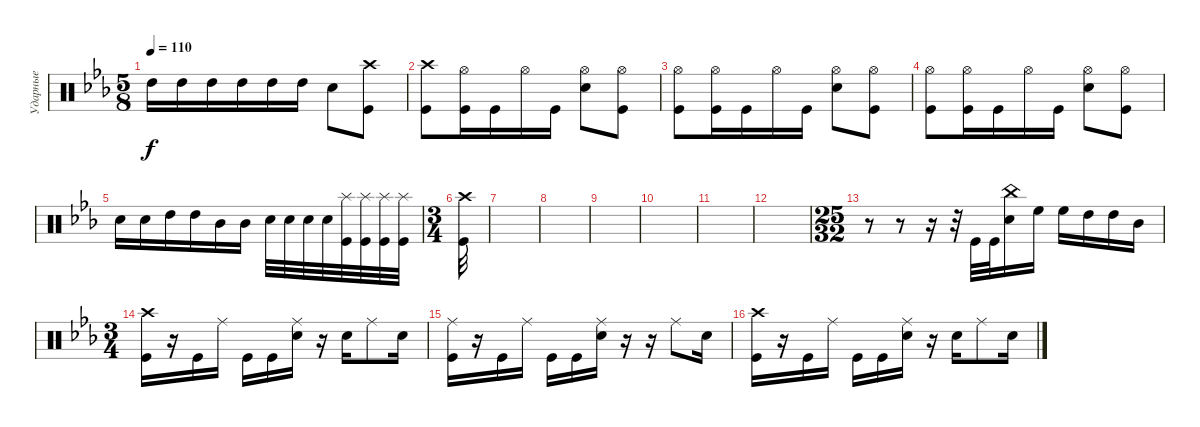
\track ("Ударные" "Ударные") {instrument percussion}
\staff {score}
\articulation defaults
\ts (5 8)
\tempo 110
\clef neutral
\ks cminor "High Tom (hit)".16{dy f} "High Tom (hit)".16 "High Tom (hit)".16 "High Tom (hit)".16 "High Tom (hit)".16 "High Tom (hit)".16 "Snare (hit) 2".8
("Kick (hit)" "Crash high (hit)").8 |
("Kick (hit)" "Crash high (hit)").8 ("Kick (hit)" "Hi-Hat (open)").16 "Kick (hit)".16 "Hi-Hat (open)".16 "Kick (hit)".16 ("Snare (hit) 2" "Hi-Hat (open)").8 ("Kick (hit)" "Hi-Hat (open)").8 |
("Kick (hit)" "Hi-Hat (open)").8 ("Kick (hit)" "Hi-Hat (open)").16 "Kick (hit)".16 "Hi-Hat (open)".16 "Kick (hit)".16 ("Snare (hit) 2" "Hi-Hat (open)").8 ("Kick (hit)" "Hi-Hat (open)").8 |
("Kick (hit)" "Hi-Hat (open)").8 ("Kick (hit)" "Hi-Hat (open)").16 "Kick (hit)".16 "Hi-Hat (open)".16 "Kick (hit)".16 ("Snare (hit) 2" "Hi-Hat (open)").8 ("Kick (hit)" "Hi-Hat (open)").8 |
"Snare (hit) 2".16 "Snare (hit) 2".16 "High Tom (hit)".16 "High Tom (hit)".16 "Mid Tom (hit)".16 "Mid Tom (hit)".16 "Snare (hit) 2".32 "Snare (hit) 2".32 "Snare (hit) 2".32 "Snare (hit) 2".32 ("Kick (hit)" "Splash (hit)").32 ("Kick (hit)" "Splash (hit)").32 ("Kick (hit)" "Splash (hit)").32 ("Kick (hit)" "Splash (hit)").32 |
\ts (3 4)
("Kick (hit)" "Crash high (hit)").32 |
|
|
|
|
|
|
\ts (25 32)
r.8 r.8 r.16 r.32 "Kick (hit)".32 "Kick (hit)".32 ("Snare (hit) 2" "China (hit)").16 "High Floor Tom (hit)".16 "High Floor Tom (hit)".16 "High Tom (hit)".16 "High Tom (hit)".16 "Mid Tom (hit)".16 |
\ts (3 4)
("Kick (hit)" "Crash high (hit)").16 r.16 "Kick (hit)".16 "Ride (middle)".16 "Kick (hit)".16 "Kick (hit)".16 ("Snare (hit) 2" "Ride (middle)").16 r.16 "Snare (hit) 2".16 "Ride (middle)".8 "Snare (hit) 2".16 |
("Kick (hit)" "Ride (middle)").16 r.16 "Kick (hit)".16 "Ride (middle)".16 "Kick (hit)".16 "Kick (hit)".16 ("Snare (hit) 2" "Ride (middle)").16 r.16 r.16 "Ride (middle)".8 "Snare (hit) 2".16 |
("Kick (hit)" "Crash high (hit)").16 r.16 "Kick (hit)".16 "Ride (middle)".16 "Kick (hit)".16 "Kick (hit)".16 ("Snare (hit) 2" "Ride (middle)").16 r.16 "Snare (hit) 2".16 "Ride (middle)".8 "Snare (hit) 2".16
